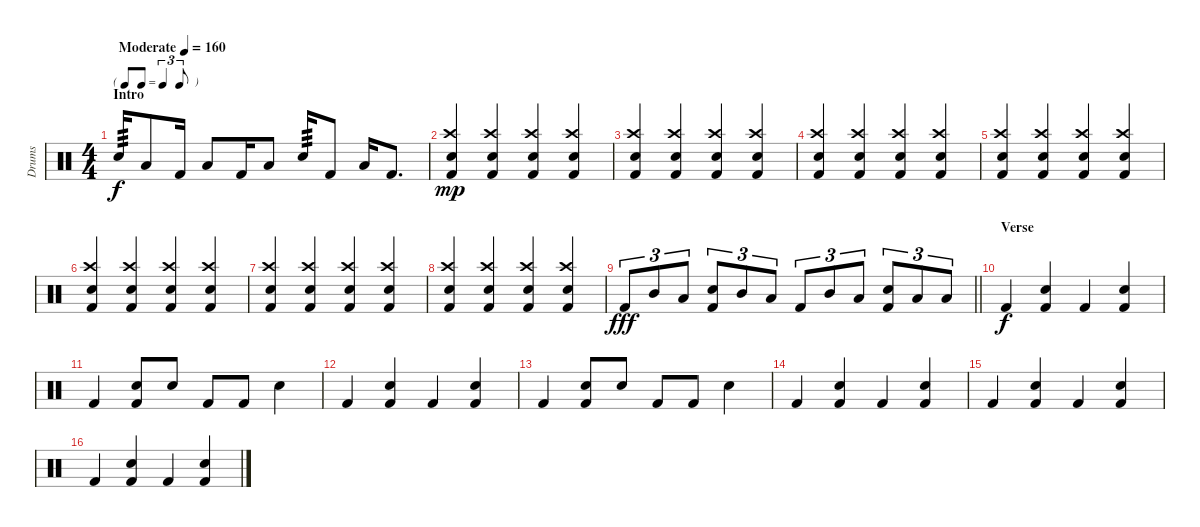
\track ("Drums" "Drums") {instrument percussion}
\staff {score}
\articulation defaults
\ts (4 4)
\tf triplet8th
\section ("" "Intro")
\tempo (160 "Moderate")
\clef neutral
\ks c "Electric Snare (hit)".16{tp 3 dy f} "Low Tom (hit)".8 "Kick (hit) 2".16 "Low Tom (hit)".8 "Kick (hit) 2".16 "Low Tom (hit)".8 "Electric Snare (hit)".16{tp 3} "Kick (hit) 2".8 "Low Tom (hit)".16 "Kick (hit) 2".8{d}
|
("Crash high (hit)" "Snare (hit) 2" "Kick (hit) 2").4{dy mp} ("Crash high (hit)" "Snare (hit) 2" "Kick (hit) 2").4 ("Crash high (hit)" "Snare (hit) 2" "Kick (hit) 2").4 ("Crash high (hit)" "Snare (hit) 2" "Kick (hit) 2").4 |
("Crash high (hit)" "Snare (hit) 2" "Kick (hit) 2").4 ("Crash high (hit)" "Snare (hit) 2" "Kick (hit) 2").4 ("Crash high (hit)" "Snare (hit) 2" "Kick (hit) 2").4 ("Crash high (hit)" "Snare (hit) 2" "Kick (hit) 2").4 |
("Crash high (hit)" "Snare (hit) 2" "Kick (hit) 2").4 ("Crash high (hit)" "Snare (hit) 2" "Kick (hit) 2").4 ("Crash high (hit)" "Snare (hit) 2" "Kick (hit) 2").4 ("Crash high (hit)" "Snare (hit) 2" "Kick (hit) 2").4 |
("Crash high (hit)" "Snare (hit) 2" "Kick (hit) 2").4 ("Crash high (hit)" "Snare (hit) 2" "Kick (hit) 2").4 ("Crash high (hit)" "Snare (hit) 2" "Kick (hit) 2").4 ("Crash high (hit)" "Snare (hit) 2" "Kick (hit) 2").4 |
("Crash high (hit)" "Snare (hit) 2" "Kick (hit) 2").4 ("Crash high (hit)" "Snare (hit) 2" "Kick (hit) 2").4 ("Crash high (hit)" "Snare (hit) 2" "Kick (hit) 2").4 ("Crash high (hit)" "Snare (hit) 2" "Kick (hit) 2").4 |
("Crash high (hit)" "Snare (hit) 2" "Kick (hit) 2").4 ("Crash high (hit)" "Snare (hit) 2" "Kick (hit) 2").4 ("Crash high (hit)" "Snare (hit) 2" "Kick (hit) 2").4 ("Crash high (hit)" "Snare (hit) 2" "Kick (hit) 2").4 |
("Crash high (hit)" "Snare (hit) 2" "Kick (hit) 2").4 ("Crash high (hit)" "Snare (hit) 2" "Kick (hit) 2").4 ("Crash high (hit)" "Snare (hit) 2" "Kick (hit) 2").4 ("Crash high (hit)" "Snare (hit) 2" "Kick (hit) 2").4 |
\barLineRight lightlight "Kick (hit) 2".8{tu (3 2) dy fff} "Mid Tom (hit)".8{tu (3 2)} "Low Tom (hit)".8{tu (3 2)}
("Electric Snare (hit)" "Kick (hit) 2").8{tu (3 2)} "Mid Tom (hit)".8{tu (3 2)} "Low Tom (hit)".8{tu (3 2)} "Kick (hit) 2".8{tu (3 2)} "Mid Tom (hit)".8{tu (3 2)} "Low Tom (hit)".8{tu (3 2)} ("Electric Snare (hit)" "Kick (hit) 2").8{tu (3 2)} "Low Tom (hit)".8{tu (3 2)} "Low Floor Tom (hit)".8{tu (3 2)} |
\section ("" "Verse")
"Kick (hit) 2".4{dy f} ("Snare (hit) 2" "Kick (hit) 2").4 "Kick (hit) 2".4 ("Snare (hit) 2" "Kick (hit) 2").4 |
"Kick (hit) 2".4 ("Snare (hit) 2" "Kick (hit) 2").8 "Snare (hit) 2".8 "Kick (hit) 2".8 "Kick (hit) 2".8 "Snare (hit) 2".4 |
"Kick (hit) 2".4 ("Snare (hit) 2" "Kick (hit) 2").4 "Kick (hit) 2".4 ("Snare (hit) 2" "Kick (hit) 2").4 |
"Kick (hit) 2".4 ("Snare (hit) 2" "Kick (hit) 2").8 "Snare (hit) 2".8 "Kick (hit) 2".8 "Kick (hit) 2".8 "Snare (hit) 2".4 |
"Kick (hit) 2".4 ("Snare (hit) 2" "Kick (hit) 2").4 "Kick (hit) 2".4 ("Snare (hit) 2" "Kick (hit) 2").4 |
"Kick (hit) 2".4 ("Snare (hit) 2" "Kick (hit) 2").4 "Kick (hit) 2".4 ("Snare (hit) 2" "Kick (hit) 2").4 |
"Kick (hit) 2".4 ("Snare (hit) 2" "Kick (hit) 2").4 "Kick (hit) 2".4 ("Snare (hit) 2" "Kick (hit) 2").4
